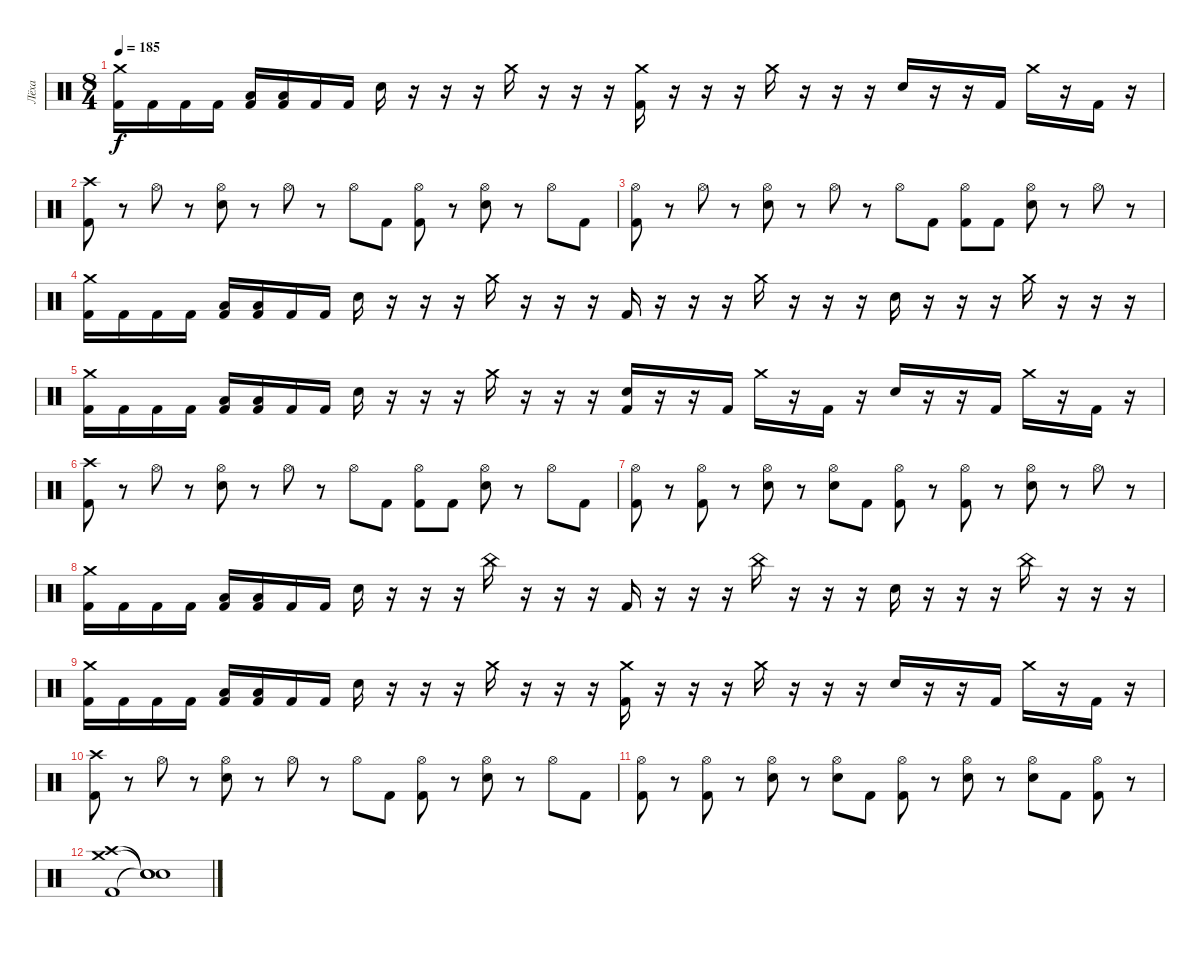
\track ("Лёха" "Лёха") {instrument percussion}
\staff {score}
\articulation defaults
\ts (8 4)
\tempo 185
\clef neutral
\ks c
("Crash medium (hit)" "Kick (hit) 2").16{dy f} "Kick (hit) 2".16 "Kick (hit) 2".16 "Kick (hit) 2".16 ("Low Tom (hit)" "Kick (hit) 2").16 ("Low Tom (hit)" "Kick (hit) 2").16 "Kick (hit) 2".16 "Kick (hit) 2".16 "Electric Snare (hit)".16 r.16 r.16 r.16 "Crash medium (hit)".16 r.16 r.16 r.16 ("Crash medium (hit)" "Kick (hit) 2").16 r.16 r.16 r.16 "Crash medium (hit)".16 r.16 r.16 r.16 "Electric Snare (hit)".16 r.16 r.16 "Kick (hit) 2".16 "Crash medium (hit)".16 r.16 "Kick (hit) 2".16 r.16 |
("Crash high (hit)" "Kick (hit) 2").8 r.8 "Hi-Hat (open)".8 r.8 ("Hi-Hat (open)" "Electric Snare (hit)").8 r.8 "Hi-Hat (open)".8 r.8 "Hi-Hat (open)".8 "Kick (hit) 2".8 ("Hi-Hat (open)" "Kick (hit) 2").8 r.8 ("Hi-Hat (open)" "Electric Snare (hit)").8 r.8 "Hi-Hat (open)".8 "Kick (hit) 2".8 |
("Hi-Hat (open)" "Kick (hit) 2").8 r.8 "Hi-Hat (open)".8 r.8 ("Hi-Hat (open)" "Electric Snare (hit)").8 r.8 "Hi-Hat (open)".8 r.8 "Hi-Hat (open)".8 "Kick (hit) 2".8 ("Hi-Hat (open)" "Kick (hit) 2").8 "Kick (hit) 2".8 ("Hi-Hat (open)" "Electric Snare (hit)").8 r.8 "Hi-Hat (open)".8 r.8 |
("Crash medium (hit)" "Kick (hit) 2").16 "Kick (hit) 2".16 "Kick (hit) 2".16 "Kick (hit) 2".16 ("Low Tom (hit)" "Kick (hit) 2").16 ("Low Tom (hit)" "Kick (hit) 2").16 "Kick (hit) 2".16 "Kick (hit) 2".16 "Electric Snare (hit)".16 r.16 r.16 r.16 "Crash medium (hit)".16 r.16 r.16 r.16 "Kick (hit) 2".16 r.16 r.16 r.16 "Crash medium (hit)".16 r.16 r.16 r.16 "Electric Snare (hit)".16 r.16 r.16 r.16 "Crash medium (hit)".16 r.16 r.16 r.16 |
("Crash medium (hit)" "Kick (hit) 2").16 "Kick (hit) 2".16 "Kick (hit) 2".16 "Kick (hit) 2".16 ("Low Tom (hit)" "Kick (hit) 2").16 ("Low Tom (hit)" "Kick (hit) 2").16 "Kick (hit) 2".16 "Kick (hit) 2".16 "Electric Snare (hit)".16 r.16 r.16 r.16 "Crash medium (hit)".16 r.16 r.16 r.16 ("Electric Snare (hit)" "Kick (hit) 2").16 r.16 r.16 "Kick (hit) 2".16 "Crash medium (hit)".16 r.16 "Kick (hit) 2".16 r.16 "Electric Snare (hit)".16 r.16 r.16 "Kick (hit) 2".16 "Crash medium (hit)".16 r.16 "Kick (hit) 2".16 r.16 |
("Crash high (hit)" "Kick (hit) 2").8 r.8 "Hi-Hat (open)".8 r.8 ("Hi-Hat (open)" "Electric Snare (hit)").8 r.8 "Hi-Hat (open)".8 r.8 "Hi-Hat (open)".8 "Kick (hit) 2".8 ("Hi-Hat (open)" "Kick (hit) 2").8 "Kick (hit) 2".8 ("Hi-Hat (open)" "Electric Snare (hit)").8 r.8 "Hi-Hat (open)".8 "Kick (hit) 2".8 |
("Hi-Hat (open)" "Kick (hit) 2").8 r.8 ("Hi-Hat (open)" "Kick (hit) 2").8 r.8 ("Hi-Hat (open)" "Electric Snare (hit)").8 r.8 ("Hi-Hat (open)" "Electric Snare (hit)").8 "Kick (hit) 2".8 ("Hi-Hat (open)" "Kick (hit) 2").8 r.8 ("Hi-Hat (open)" "Kick (hit) 2").8 r.8 ("Hi-Hat (open)" "Electric Snare (hit)").8 r.8 "Hi-Hat (open)".8 r.8 |
("Crash medium (hit)" "Kick (hit) 2").16 "Kick (hit) 2".16 "Kick (hit) 2".16 "Kick (hit) 2".16 ("Low Tom (hit)" "Kick (hit) 2").16 ("Low Tom (hit)" "Kick (hit) 2").16 "Kick (hit) 2".16 "Kick (hit) 2".16 "Electric Snare (hit)".16 r.16 r.16 r.16 "China (hit)".16 r.16 r.16 r.16 "Kick (hit) 2".16 r.16 r.16 r.16 "China (hit)".16 r.16 r.16 r.16 "Electric Snare (hit)".16 r.16 r.16 r.16 "China (hit)".16 r.16 r.16 r.16 |
("Crash medium (hit)" "Kick (hit) 2").16 "Kick (hit) 2".16 "Kick (hit) 2".16 "Kick (hit) 2".16 ("Low Tom (hit)" "Kick (hit) 2").16 ("Low Tom (hit)" "Kick (hit) 2").16 "Kick (hit) 2".16 "Kick (hit) 2".16 "Electric Snare (hit)".16 r.16 r.16 r.16 "Crash medium (hit)".16 r.16 r.16 r.16 ("Crash medium (hit)" "Kick (hit) 2").16 r.16 r.16 r.16 "Crash medium (hit)".16 r.16 r.16 r.16 "Electric Snare (hit)".16 r.16 r.16 "Kick (hit) 2".16 "Crash medium (hit)".16 r.16 "Kick (hit) 2".16 r.16 |
("Crash high (hit)" "Kick (hit) 2").8 r.8 "Hi-Hat (open)".8 r.8 ("Hi-Hat (open)" "Electric Snare (hit)").8 r.8 "Hi-Hat (open)".8 r.8 "Hi-Hat (open)".8 "Kick (hit) 2".8 ("Hi-Hat (open)" "Kick (hit) 2").8 r.8 ("Hi-Hat (open)" "Electric Snare (hit)").8 r.8 "Hi-Hat (open)".8 "Kick (hit) 2".8 |
("Hi-Hat (open)" "Kick (hit) 2").8 r.8 ("Hi-Hat (open)" "Kick (hit) 2").8 r.8 ("Hi-Hat (open)" "Electric Snare (hit)").8 r.8 ("Hi-Hat (open)" "Electric Snare (hit)").8 "Kick (hit) 2".8 ("Hi-Hat (open)" "Kick (hit) 2").8 r.8 ("Hi-Hat (open)" "Electric Snare (hit)").8 r.8 ("Hi-Hat (open)" "Electric Snare (hit)").8 "Kick (hit) 2".8 ("Hi-Hat (open)" "Kick (hit) 2").8 r.8 |
("Crash high (hit)" "Crash medium (hit)" "Kick (hit) 2").1 ("Snare (hit)"{t} "Snare (hit)"{t} "Snare (hit)"{t}).1
